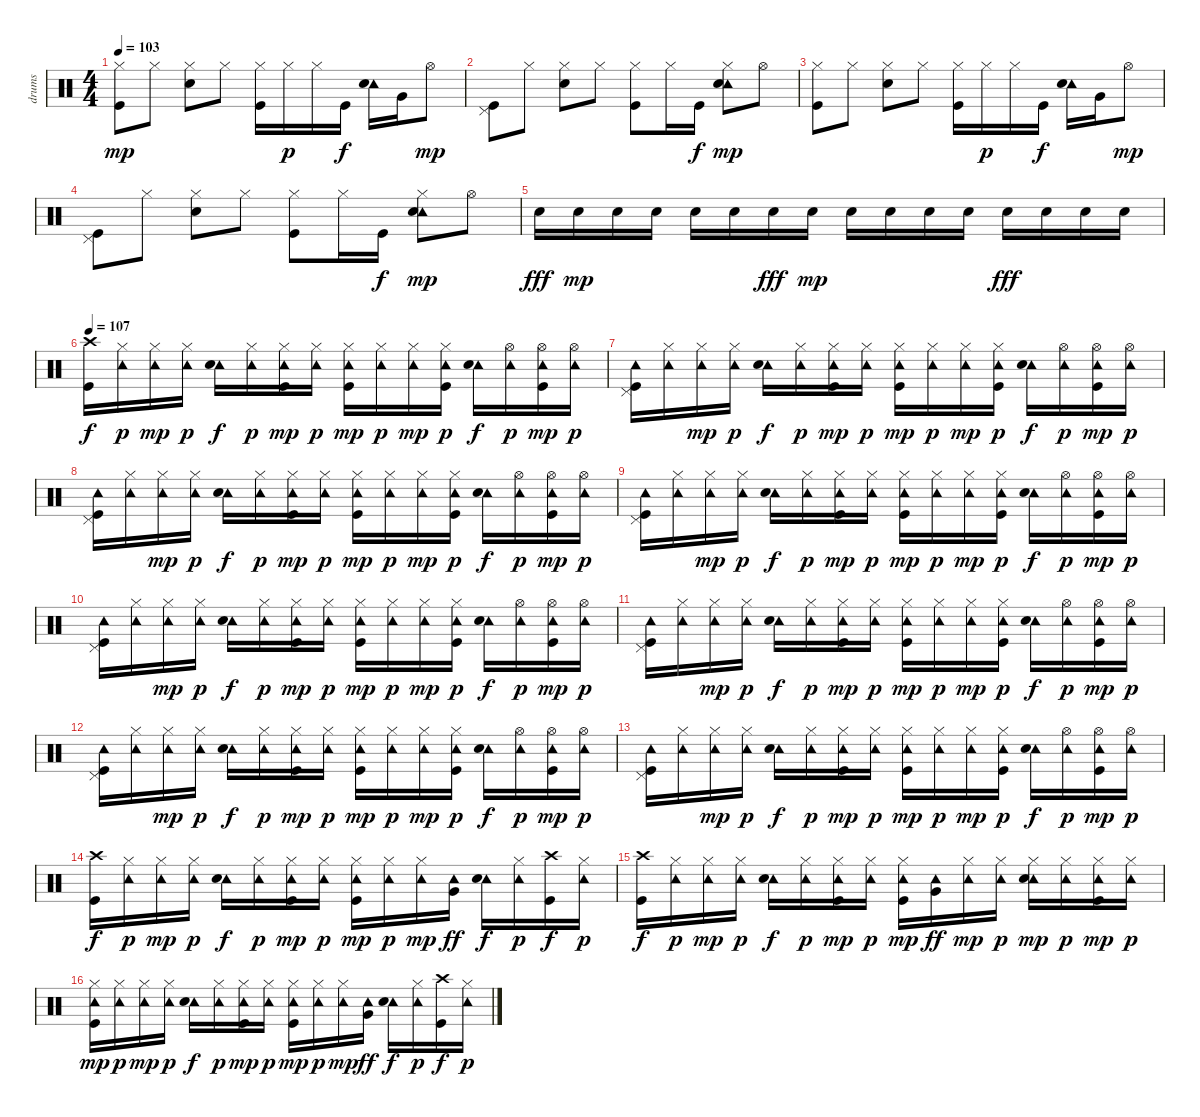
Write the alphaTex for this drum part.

\track ("drums" "drums") {instrument percussion}
\staff {score}
\articulation defaults
\ts (4 4)
\tempo 103
\clef neutral
\ks c
("Hi-Hat (closed)" "Kick (hit)").8{dy mp} "Hi-Hat (closed)".8 ("Hi-Hat (closed)" "Electric Snare (hit)").8 "Hi-Hat (closed)".8 ("Hi-Hat (closed)" "Kick (hit)").16 "Hi-Hat (closed)".16{dy p} "Hi-Hat (closed)".16 "Kick (hit)".16{dy f} ("Tambourine (hit)" "Electric Snare (hit)").16 "Very Low Tom (hit)".16 "Hi-Hat (open)".8{dy mp} |
("Pedal Hi-Hat (hit)" "Kick (hit)").8 "Hi-Hat (closed)".8 ("Hi-Hat (closed)" "Electric Snare (hit)").8 "Hi-Hat (closed)".8 ("Hi-Hat (closed)" "Kick (hit)").8 "Hi-Hat (closed)".16 "Kick (hit)".16{dy f} ("Tambourine (hit)" "Hi-Hat (closed)" "Electric Snare (hit)").8{dy mp} "Hi-Hat (open)".8 |
("Hi-Hat (closed)" "Kick (hit)").8 "Hi-Hat (closed)".8 ("Hi-Hat (closed)" "Electric Snare (hit)").8 "Hi-Hat (closed)".8 ("Hi-Hat (closed)" "Kick (hit)").16 "Hi-Hat (closed)".16{dy p} "Hi-Hat (closed)".16 "Kick (hit)".16{dy f} ("Tambourine (hit)" "Electric Snare (hit)").16 "Very Low Tom (hit)".16 "Hi-Hat (open)".8{dy mp} |
("Pedal Hi-Hat (hit)" "Kick (hit)").8 "Hi-Hat (closed)".8 ("Hi-Hat (closed)" "Electric Snare (hit)").8 "Hi-Hat (closed)".8 ("Hi-Hat (closed)" "Kick (hit)").8 "Hi-Hat (closed)".16 "Kick (hit)".16{dy f} ("Tambourine (hit)" "Hi-Hat (closed)" "Electric Snare (hit)").8{dy mp} "Hi-Hat (open)".8 |
"Electric Snare (hit)".16{dy fff} "Electric Snare (hit)".16{dy mp} "Electric Snare (hit)".16 "Electric Snare (hit)".16 "Electric Snare (hit)".16 "Electric Snare (hit)".16 "Electric Snare (hit)".16{dy fff} "Electric Snare (hit)".16{dy mp} "Electric Snare (hit)".16 "Electric Snare (hit)".16 "Electric Snare (hit)".16 "Electric Snare (hit)".16 "Electric Snare (hit)".16{dy fff} "Electric Snare (hit)".16 "Electric Snare (hit)".16 "Electric Snare (hit)".16 |
\tempo 107
("Crash high (hit)" "Kick (hit)").16{dy f} ("Tambourine (hit)" "Hi-Hat (closed)").16{dy p} ("Tambourine (hit)" "Hi-Hat (closed)").16{dy mp} ("Tambourine (hit)" "Hi-Hat (closed)").16{dy p} ("Tambourine (hit)" "Electric Snare (hit)").16{dy f} ("Tambourine (hit)" "Hi-Hat (closed)").16{dy p} ("Tambourine (hit)" "Hi-Hat (closed)" "Kick (hit)").16{dy mp} ("Tambourine (hit)" "Hi-Hat (closed)").16{dy p} ("Tambourine (hit)" "Hi-Hat (closed)" "Kick (hit)").16{dy mp} ("Tambourine (hit)" "Hi-Hat (closed)").16{dy p} ("Tambourine (hit)" "Hi-Hat (closed)").16{dy mp} ("Tambourine (hit)" "Hi-Hat (closed)" "Kick (hit)").16{dy p} ("Tambourine (hit)" "Electric Snare (hit)").16{dy f} ("Tambourine (hit)" "Hi-Hat (open)").16{dy p} ("Tambourine (hit)" "Hi-Hat (open)" "Kick (hit)").16{dy mp} ("Tambourine (hit)" "Hi-Hat (open)").16{dy p} |
("Tambourine (hit)" "Pedal Hi-Hat (hit)" "Kick (hit)").16 ("Tambourine (hit)" "Hi-Hat (closed)").16 ("Tambourine (hit)" "Hi-Hat (closed)").16{dy mp} ("Tambourine (hit)" "Hi-Hat (closed)").16{dy p} ("Tambourine (hit)" "Electric Snare (hit)").16{dy f} ("Tambourine (hit)" "Hi-Hat (closed)").16{dy p} ("Tambourine (hit)" "Hi-Hat (closed)" "Kick (hit)").16{dy mp} ("Tambourine (hit)" "Hi-Hat (closed)").16{dy p} ("Tambourine (hit)" "Hi-Hat (closed)" "Kick (hit)").16{dy mp} ("Tambourine (hit)" "Hi-Hat (closed)").16{dy p} ("Tambourine (hit)" "Hi-Hat (closed)").16{dy mp} ("Tambourine (hit)" "Hi-Hat (closed)" "Kick (hit)").16{dy p} ("Tambourine (hit)" "Electric Snare (hit)").16{dy f} ("Tambourine (hit)" "Hi-Hat (open)").16{dy p} ("Tambourine (hit)" "Hi-Hat (open)" "Kick (hit)").16{dy mp} ("Tambourine (hit)" "Hi-Hat (open)").16{dy p} |
("Tambourine (hit)" "Pedal Hi-Hat (hit)" "Kick (hit)").16 ("Tambourine (hit)" "Hi-Hat (closed)").16 ("Tambourine (hit)" "Hi-Hat (closed)").16{dy mp} ("Tambourine (hit)" "Hi-Hat (closed)").16{dy p} ("Tambourine (hit)" "Electric Snare (hit)").16{dy f} ("Tambourine (hit)" "Hi-Hat (closed)").16{dy p} ("Tambourine (hit)" "Hi-Hat (closed)" "Kick (hit)").16{dy mp} ("Tambourine (hit)" "Hi-Hat (closed)").16{dy p} ("Tambourine (hit)" "Hi-Hat (closed)" "Kick (hit)").16{dy mp} ("Tambourine (hit)" "Hi-Hat (closed)").16{dy p} ("Tambourine (hit)" "Hi-Hat (closed)").16{dy mp} ("Tambourine (hit)" "Hi-Hat (closed)" "Kick (hit)").16{dy p} ("Tambourine (hit)" "Electric Snare (hit)").16{dy f} ("Tambourine (hit)" "Hi-Hat (open)").16{dy p} ("Tambourine (hit)" "Hi-Hat (open)" "Kick (hit)").16{dy mp} ("Tambourine (hit)" "Hi-Hat (open)").16{dy p} |
("Tambourine (hit)" "Pedal Hi-Hat (hit)" "Kick (hit)").16 ("Tambourine (hit)" "Hi-Hat (closed)").16 ("Tambourine (hit)" "Hi-Hat (closed)").16{dy mp} ("Tambourine (hit)" "Hi-Hat (closed)").16{dy p} ("Tambourine (hit)" "Electric Snare (hit)").16{dy f} ("Tambourine (hit)" "Hi-Hat (closed)").16{dy p} ("Tambourine (hit)" "Hi-Hat (closed)" "Kick (hit)").16{dy mp} ("Tambourine (hit)" "Hi-Hat (closed)").16{dy p} ("Tambourine (hit)" "Hi-Hat (closed)" "Kick (hit)").16{dy mp} ("Tambourine (hit)" "Hi-Hat (closed)").16{dy p} ("Tambourine (hit)" "Hi-Hat (closed)").16{dy mp} ("Tambourine (hit)" "Hi-Hat (closed)" "Kick (hit)").16{dy p} ("Tambourine (hit)" "Electric Snare (hit)").16{dy f} ("Tambourine (hit)" "Hi-Hat (open)").16{dy p} ("Tambourine (hit)" "Hi-Hat (open)" "Kick (hit)").16{dy mp} ("Tambourine (hit)" "Hi-Hat (open)").16{dy p} |
("Tambourine (hit)" "Pedal Hi-Hat (hit)" "Kick (hit)").16 ("Tambourine (hit)" "Hi-Hat (closed)").16 ("Tambourine (hit)" "Hi-Hat (closed)").16{dy mp} ("Tambourine (hit)" "Hi-Hat (closed)").16{dy p} ("Tambourine (hit)" "Electric Snare (hit)").16{dy f} ("Tambourine (hit)" "Hi-Hat (closed)").16{dy p} ("Tambourine (hit)" "Hi-Hat (closed)" "Kick (hit)").16{dy mp} ("Tambourine (hit)" "Hi-Hat (closed)").16{dy p} ("Tambourine (hit)" "Hi-Hat (closed)" "Kick (hit)").16{dy mp} ("Tambourine (hit)" "Hi-Hat (closed)").16{dy p} ("Tambourine (hit)" "Hi-Hat (closed)").16{dy mp} ("Tambourine (hit)" "Hi-Hat (closed)" "Kick (hit)").16{dy p} ("Tambourine (hit)" "Electric Snare (hit)").16{dy f} ("Tambourine (hit)" "Hi-Hat (open)").16{dy p} ("Tambourine (hit)" "Hi-Hat (open)" "Kick (hit)").16{dy mp} ("Tambourine (hit)" "Hi-Hat (open)").16{dy p} |
("Tambourine (hit)" "Pedal Hi-Hat (hit)" "Kick (hit)").16 ("Tambourine (hit)" "Hi-Hat (closed)").16 ("Tambourine (hit)" "Hi-Hat (closed)").16{dy mp} ("Tambourine (hit)" "Hi-Hat (closed)").16{dy p} ("Tambourine (hit)" "Electric Snare (hit)").16{dy f} ("Tambourine (hit)" "Hi-Hat (closed)").16{dy p} ("Tambourine (hit)" "Hi-Hat (closed)" "Kick (hit)").16{dy mp} ("Tambourine (hit)" "Hi-Hat (closed)").16{dy p} ("Tambourine (hit)" "Hi-Hat (closed)" "Kick (hit)").16{dy mp} ("Tambourine (hit)" "Hi-Hat (closed)").16{dy p} ("Tambourine (hit)" "Hi-Hat (closed)").16{dy mp} ("Tambourine (hit)" "Hi-Hat (closed)" "Kick (hit)").16{dy p} ("Tambourine (hit)" "Electric Snare (hit)").16{dy f} ("Tambourine (hit)" "Hi-Hat (open)").16{dy p} ("Tambourine (hit)" "Hi-Hat (open)" "Kick (hit)").16{dy mp} ("Tambourine (hit)" "Hi-Hat (open)").16{dy p} |
("Tambourine (hit)" "Pedal Hi-Hat (hit)" "Kick (hit)").16 ("Tambourine (hit)" "Hi-Hat (closed)").16 ("Tambourine (hit)" "Hi-Hat (closed)").16{dy mp} ("Tambourine (hit)" "Hi-Hat (closed)").16{dy p} ("Tambourine (hit)" "Electric Snare (hit)").16{dy f} ("Tambourine (hit)" "Hi-Hat (closed)").16{dy p} ("Tambourine (hit)" "Hi-Hat (closed)" "Kick (hit)").16{dy mp} ("Tambourine (hit)" "Hi-Hat (closed)").16{dy p} ("Tambourine (hit)" "Hi-Hat (closed)" "Kick (hit)").16{dy mp} ("Tambourine (hit)" "Hi-Hat (closed)").16{dy p} ("Tambourine (hit)" "Hi-Hat (closed)").16{dy mp} ("Tambourine (hit)" "Hi-Hat (closed)" "Kick (hit)").16{dy p} ("Tambourine (hit)" "Electric Snare (hit)").16{dy f} ("Tambourine (hit)" "Hi-Hat (open)").16{dy p} ("Tambourine (hit)" "Hi-Hat (open)" "Kick (hit)").16{dy mp} ("Tambourine (hit)" "Hi-Hat (open)").16{dy p} |
("Tambourine (hit)" "Pedal Hi-Hat (hit)" "Kick (hit)").16 ("Tambourine (hit)" "Hi-Hat (closed)").16 ("Tambourine (hit)" "Hi-Hat (closed)").16{dy mp} ("Tambourine (hit)" "Hi-Hat (closed)").16{dy p} ("Tambourine (hit)" "Electric Snare (hit)").16{dy f} ("Tambourine (hit)" "Hi-Hat (closed)").16{dy p} ("Tambourine (hit)" "Hi-Hat (closed)" "Kick (hit)").16{dy mp} ("Tambourine (hit)" "Hi-Hat (closed)").16{dy p} ("Tambourine (hit)" "Hi-Hat (closed)" "Kick (hit)").16{dy mp} ("Tambourine (hit)" "Hi-Hat (closed)").16{dy p} ("Tambourine (hit)" "Hi-Hat (closed)").16{dy mp} ("Tambourine (hit)" "Hi-Hat (closed)" "Kick (hit)").16{dy p} ("Tambourine (hit)" "Electric Snare (hit)").16{dy f} ("Tambourine (hit)" "Hi-Hat (open)").16{dy p} ("Tambourine (hit)" "Hi-Hat (open)" "Kick (hit)").16{dy mp} ("Tambourine (hit)" "Hi-Hat (open)").16{dy p} |
("Crash high (hit)" "Kick (hit)").16{dy f} ("Tambourine (hit)" "Hi-Hat (closed)").16{dy p} ("Tambourine (hit)" "Hi-Hat (closed)").16{dy mp} ("Tambourine (hit)" "Hi-Hat (closed)").16{dy p} ("Tambourine (hit)" "Electric Snare (hit)").16{dy f} ("Tambourine (hit)" "Hi-Hat (closed)").16{dy p} ("Tambourine (hit)" "Hi-Hat (closed)" "Kick (hit)").16{dy mp} ("Tambourine (hit)" "Hi-Hat (closed)").16{dy p} ("Tambourine (hit)" "Hi-Hat (closed)" "Kick (hit)").16{dy mp} ("Tambourine (hit)" "Hi-Hat (closed)").16{dy p} ("Tambourine (hit)" "Hi-Hat (closed)").16{dy mp} ("Tambourine (hit)" "Very Low Tom (hit)").16{dy ff} ("Tambourine (hit)" "Electric Snare (hit)").16{dy f} ("Tambourine (hit)" "Hi-Hat (closed)").16{dy p} ("Crash high (hit)" "Kick (hit)").16{dy f} ("Tambourine (hit)" "Hi-Hat (closed)").16{dy p} |
("Crash high (hit)" "Kick (hit)").16{dy f} ("Tambourine (hit)" "Hi-Hat (closed)").16{dy p} ("Tambourine (hit)" "Hi-Hat (closed)").16{dy mp} ("Tambourine (hit)" "Hi-Hat (closed)").16{dy p} ("Tambourine (hit)" "Electric Snare (hit)").16{dy f} ("Tambourine (hit)" "Hi-Hat (closed)").16{dy p} ("Tambourine (hit)" "Hi-Hat (closed)" "Kick (hit)").16{dy mp} ("Tambourine (hit)" "Hi-Hat (closed)").16{dy p} ("Tambourine (hit)" "Hi-Hat (closed)" "Kick (hit)").16{dy mp} ("Tambourine (hit)" "Very Low Tom (hit)").16{dy ff} ("Tambourine (hit)" "Hi-Hat (closed)").16{dy mp} ("Tambourine (hit)" "Hi-Hat (closed)").16{dy p} ("Tambourine (hit)" "Hi-Hat (closed)" "Electric Snare (hit)").16{dy mp} ("Tambourine (hit)" "Hi-Hat (closed)").16{dy p} ("Tambourine (hit)" "Hi-Hat (closed)" "Kick (hit)").16{dy mp} ("Tambourine (hit)" "Hi-Hat (closed)").16{dy p} |
("Tambourine (hit)" "Hi-Hat (closed)" "Kick (hit)").16{dy mp} ("Tambourine (hit)" "Hi-Hat (closed)").16{dy p} ("Tambourine (hit)" "Hi-Hat (closed)").16{dy mp} ("Tambourine (hit)" "Hi-Hat (closed)").16{dy p} ("Tambourine (hit)" "Electric Snare (hit)").16{dy f} ("Tambourine (hit)" "Hi-Hat (closed)").16{dy p} ("Tambourine (hit)" "Hi-Hat (closed)" "Kick (hit)").16{dy mp} ("Tambourine (hit)" "Hi-Hat (closed)").16{dy p} ("Tambourine (hit)" "Hi-Hat (closed)" "Kick (hit)").16{dy mp} ("Tambourine (hit)" "Hi-Hat (closed)").16{dy p} ("Tambourine (hit)" "Hi-Hat (closed)").16{dy mp} ("Tambourine (hit)" "Very Low Tom (hit)").16{dy ff} ("Tambourine (hit)" "Electric Snare (hit)").16{dy f} ("Tambourine (hit)" "Hi-Hat (closed)").16{dy p} ("Crash high (hit)" "Kick (hit)").16{dy f} ("Tambourine (hit)" "Hi-Hat (closed)").16{dy p}
